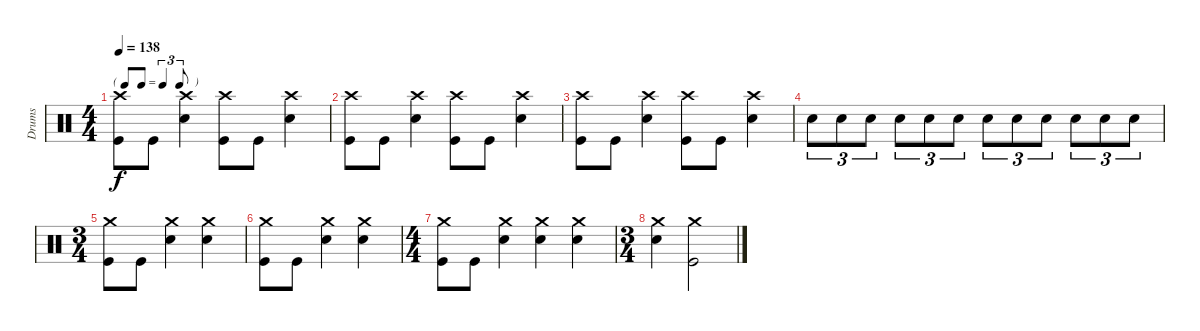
\track ("Drums" "Drums") {instrument percussion}
\staff {score}
\articulation defaults
\ts (4 4)
\tf triplet8th
\tempo 138
\clef neutral
\ks c
("Crash high (hit)" "Kick (hit)").8{dy f} "Kick (hit)".8 ("Crash high (hit)" "Snare (hit) 2").4 ("Crash high (hit)" "Kick (hit)").8 "Kick (hit)".8 ("Crash high (hit)" "Snare (hit) 2").4 |
("Crash high (hit)" "Kick (hit)").8 "Kick (hit)".8 ("Crash high (hit)" "Snare (hit) 2").4 ("Crash high (hit)" "Kick (hit)").8 "Kick (hit)".8 ("Crash high (hit)" "Snare (hit) 2").4 |
("Crash high (hit)" "Kick (hit)").8 "Kick (hit)".8 ("Crash high (hit)" "Snare (hit) 2").4 ("Crash high (hit)" "Kick (hit)").8 "Kick (hit)".8 ("Crash high (hit)" "Snare (hit) 2").4 |
"Snare (hit) 2".8{tu (3 2)} "Snare (hit) 2".8{tu (3 2)} "Snare (hit) 2".8{tu (3 2)} "Snare (hit) 2".8{tu (3 2)} "Snare (hit) 2".8{tu (3 2)} "Snare (hit) 2".8{tu (3 2)} "Snare (hit) 2".8{tu (3 2)} "Snare (hit) 2".8{tu (3 2)} "Snare (hit) 2".8{tu (3 2)} "Snare (hit) 2".8{tu (3 2)} "Snare (hit) 2".8{tu (3 2)} "Snare (hit) 2".8{tu (3 2)} |
\ts (3 4)
("Crash medium (hit)" "Kick (hit)").8 "Kick (hit)".8 ("Crash medium (hit)" "Snare (hit) 2").4 ("Crash medium (hit)" "Snare (hit) 2").4 |
("Crash medium (hit)" "Kick (hit)").8 "Kick (hit)".8 ("Crash medium (hit)" "Snare (hit) 2").4 ("Crash medium (hit)" "Snare (hit) 2").4 |
\ts (4 4)
("Crash medium (hit)" "Kick (hit)").8 "Kick (hit)".8 ("Crash medium (hit)" "Snare (hit) 2").4 ("Crash medium (hit)" "Snare (hit) 2").4 ("Crash medium (hit)" "Snare (hit) 2").4 |
\ts (3 4)
("Crash medium (hit)" "Snare (hit) 2").4 ("Crash medium (hit)" "Kick (hit)").2
